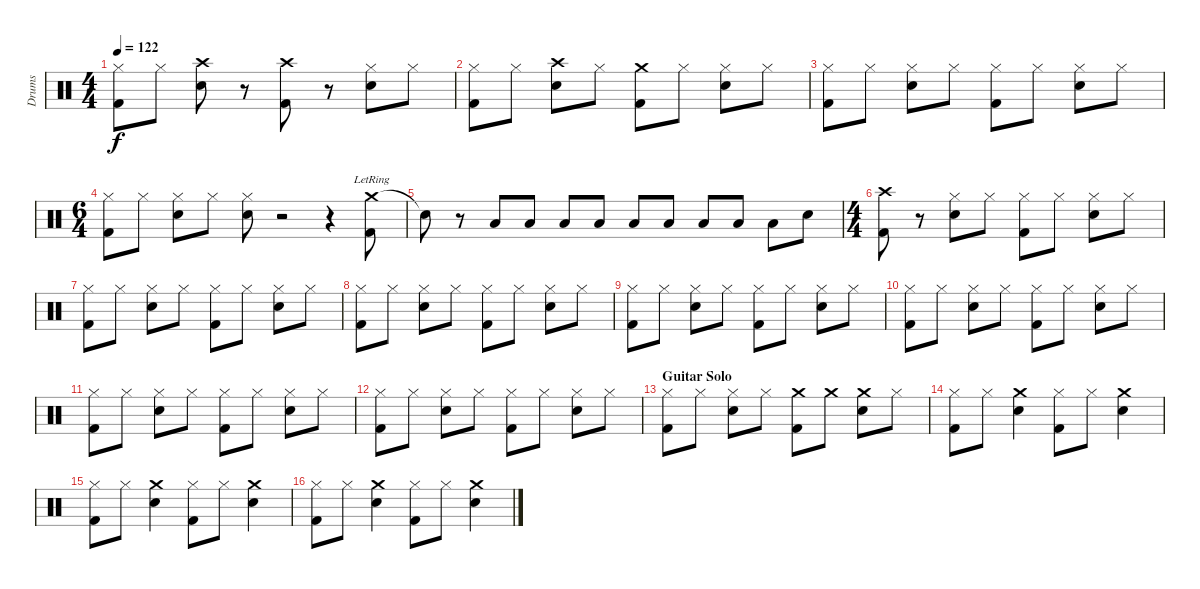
\track ("Drums" "Drums") {instrument percussion}
\staff {score}
\articulation defaults
\ts (4 4)
\tempo 122
\clef neutral
\ks c
("Hi-Hat (closed)" "Kick (hit) 2").8{dy f} "Hi-Hat (closed)".8 ("Crash high (hit)" "Electric Snare (hit)").8 r.8 ("Crash high (hit)" "Kick (hit) 2").8 r.8 ("Hi-Hat (closed)" "Electric Snare (hit)").8 "Hi-Hat (closed)".8 |
("Hi-Hat (closed)" "Kick (hit) 2").8 "Hi-Hat (closed)".8 ("Crash high (hit)" "Electric Snare (hit)").8 "Hi-Hat (closed)".8 ("Crash medium (hit)" "Kick (hit) 2").8 "Hi-Hat (closed)".8 ("Hi-Hat (closed)" "Electric Snare (hit)").8 "Hi-Hat (closed)".8 |
("Hi-Hat (closed)" "Kick (hit) 2").8 "Hi-Hat (closed)".8 ("Hi-Hat (closed)" "Electric Snare (hit)").8 "Hi-Hat (closed)".8 ("Hi-Hat (closed)" "Kick (hit) 2").8 "Hi-Hat (closed)".8 ("Hi-Hat (closed)" "Electric Snare (hit)").8 "Hi-Hat (closed)".8 |
\ts (6 4)
("Hi-Hat (closed)" "Kick (hit) 2").8 "Hi-Hat (closed)".8 ("Hi-Hat (closed)" "Electric Snare (hit)").8 "Hi-Hat (closed)".8 ("Hi-Hat (closed)" "Electric Snare (hit)").8 r.2 r.4 ("Crash medium (hit)"{lr} "Kick (hit) 2").8 |
"Snare (hit)"{t}.8 r.8{volume 0} "Low Floor Tom (hit)".8{volume 13} "Low Floor Tom (hit)".8 "Low Floor Tom (hit)".8 "Low Floor Tom (hit)".8 "Low Floor Tom (hit)".8 "Low Floor Tom (hit)".8 "Low Floor Tom (hit)".8 "Low Floor Tom (hit)".8 "Low Floor Tom (hit)".8 "Electric Snare (hit)".8 |
\ts (4 4)
("Crash high (hit)" "Kick (hit) 2").8 r.8 ("Hi-Hat (closed)" "Electric Snare (hit)").8 "Hi-Hat (closed)".8 ("Hi-Hat (closed)" "Kick (hit) 2").8 "Hi-Hat (closed)".8 ("Hi-Hat (closed)" "Electric Snare (hit)").8 "Hi-Hat (closed)".8 |
("Hi-Hat (closed)" "Kick (hit) 2").8 "Hi-Hat (closed)".8 ("Hi-Hat (closed)" "Electric Snare (hit)").8 "Hi-Hat (closed)".8 ("Hi-Hat (closed)" "Kick (hit) 2").8 "Hi-Hat (closed)".8 ("Hi-Hat (closed)" "Electric Snare (hit)").8 "Hi-Hat (closed)".8 |
("Hi-Hat (closed)" "Kick (hit) 2").8 "Hi-Hat (closed)".8 ("Hi-Hat (closed)" "Electric Snare (hit)").8 "Hi-Hat (closed)".8 ("Hi-Hat (closed)" "Kick (hit) 2").8 "Hi-Hat (closed)".8 ("Hi-Hat (closed)" "Electric Snare (hit)").8 "Hi-Hat (closed)".8 |
("Hi-Hat (closed)" "Kick (hit) 2").8 "Hi-Hat (closed)".8 ("Hi-Hat (closed)" "Electric Snare (hit)").8 "Hi-Hat (closed)".8 ("Hi-Hat (closed)" "Kick (hit) 2").8 "Hi-Hat (closed)".8 ("Hi-Hat (closed)" "Electric Snare (hit)").8 "Hi-Hat (closed)".8 |
("Hi-Hat (closed)" "Kick (hit) 2").8 "Hi-Hat (closed)".8 ("Hi-Hat (closed)" "Electric Snare (hit)").8 "Hi-Hat (closed)".8 ("Hi-Hat (closed)" "Kick (hit) 2").8 "Hi-Hat (closed)".8 ("Hi-Hat (closed)" "Electric Snare (hit)").8 "Hi-Hat (closed)".8 |
("Hi-Hat (closed)" "Kick (hit) 2").8 "Hi-Hat (closed)".8 ("Hi-Hat (closed)" "Electric Snare (hit)").8 "Hi-Hat (closed)".8 ("Hi-Hat (closed)" "Kick (hit) 2").8 "Hi-Hat (closed)".8 ("Hi-Hat (closed)" "Electric Snare (hit)").8 "Hi-Hat (closed)".8 |
("Hi-Hat (closed)" "Kick (hit) 2").8 "Hi-Hat (closed)".8 ("Hi-Hat (closed)" "Electric Snare (hit)").8 "Hi-Hat (closed)".8 ("Hi-Hat (closed)" "Kick (hit) 2").8 "Hi-Hat (closed)".8 ("Hi-Hat (closed)" "Electric Snare (hit)").8 "Hi-Hat (closed)".8 |
\section ("" "Guitar Solo")
("Hi-Hat (closed)" "Kick (hit) 2").8 "Hi-Hat (closed)".8 ("Hi-Hat (closed)" "Electric Snare (hit)").8 "Hi-Hat (closed)".8 ("Crash medium (hit)" "Kick (hit) 2").8 "Crash medium (hit)".8 ("Crash medium (hit)" "Electric Snare (hit)").8 "Hi-Hat (closed)".8 |
("Hi-Hat (closed)" "Kick (hit) 2").8 "Hi-Hat (closed)".8 ("Crash medium (hit)" "Electric Snare (hit)").4 ("Hi-Hat (closed)" "Kick (hit) 2").8 "Hi-Hat (closed)".8 ("Crash medium (hit)" "Electric Snare (hit)").4 |
("Hi-Hat (closed)" "Kick (hit) 2").8 "Hi-Hat (closed)".8 ("Crash medium (hit)" "Electric Snare (hit)").4 ("Hi-Hat (closed)" "Kick (hit) 2").8 "Hi-Hat (closed)".8 ("Crash medium (hit)" "Electric Snare (hit)").4 |
("Hi-Hat (closed)" "Kick (hit) 2").8 "Hi-Hat (closed)".8 ("Crash medium (hit)" "Electric Snare (hit)").4 ("Hi-Hat (closed)" "Kick (hit) 2").8 "Hi-Hat (closed)".8 ("Crash medium (hit)" "Electric Snare (hit)").4
